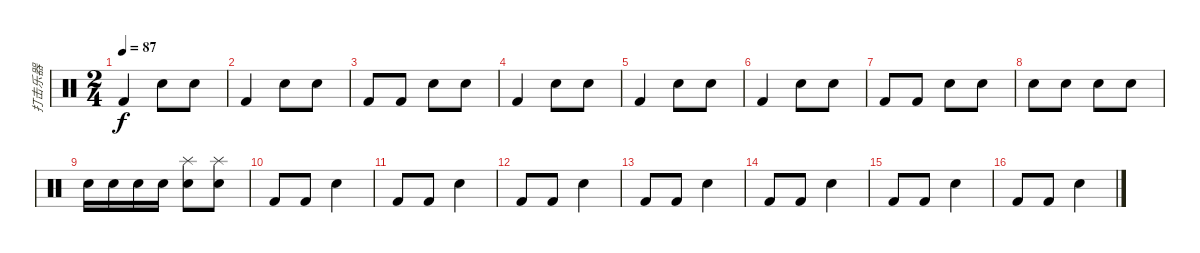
\track ("打击乐器" "打击乐器") {instrument percussion}
\staff {score}
\articulation defaults
\ts (2 4)
\tempo 87
\clef neutral
\ks c "Kick (hit) 2".4{dy f} "Snare (hit) 2".8 "Snare (hit) 2".8
|
"Kick (hit) 2".4 "Snare (hit) 2".8 "Snare (hit) 2".8 |
"Kick (hit) 2".8 "Kick (hit) 2".8 "Snare (hit) 2".8 "Snare (hit) 2".8 |
"Kick (hit) 2".4 "Snare (hit) 2".8 "Snare (hit) 2".8 |
"Kick (hit) 2".4 "Snare (hit) 2".8 "Snare (hit) 2".8 |
"Kick (hit) 2".4 "Snare (hit) 2".8 "Snare (hit) 2".8 |
"Kick (hit) 2".8 "Kick (hit) 2".8 "Snare (hit) 2".8 "Snare (hit) 2".8 |
"Snare (hit) 2".8 "Snare (hit) 2".8 "Snare (hit) 2".8 "Snare (hit) 2".8 |
"Snare (hit) 2".16 "Snare (hit) 2".16 "Snare (hit) 2".16 "Snare (hit) 2".16 ("Snare (hit) 2" "Splash (hit)").8 ("Snare (hit) 2" "Splash (hit)").8 |
"Kick (hit) 2".8 "Kick (hit) 2".8 "Snare (hit) 2".4 |
"Kick (hit) 2".8 "Kick (hit) 2".8 "Snare (hit) 2".4 |
"Kick (hit) 2".8 "Kick (hit) 2".8 "Snare (hit) 2".4 |
"Kick (hit) 2".8 "Kick (hit) 2".8 "Snare (hit) 2".4 |
"Kick (hit) 2".8 "Kick (hit) 2".8 "Snare (hit) 2".4 |
"Kick (hit) 2".8 "Kick (hit) 2".8 "Snare (hit) 2".4 |
"Kick (hit) 2".8 "Kick (hit) 2".8 "Snare (hit) 2".4
